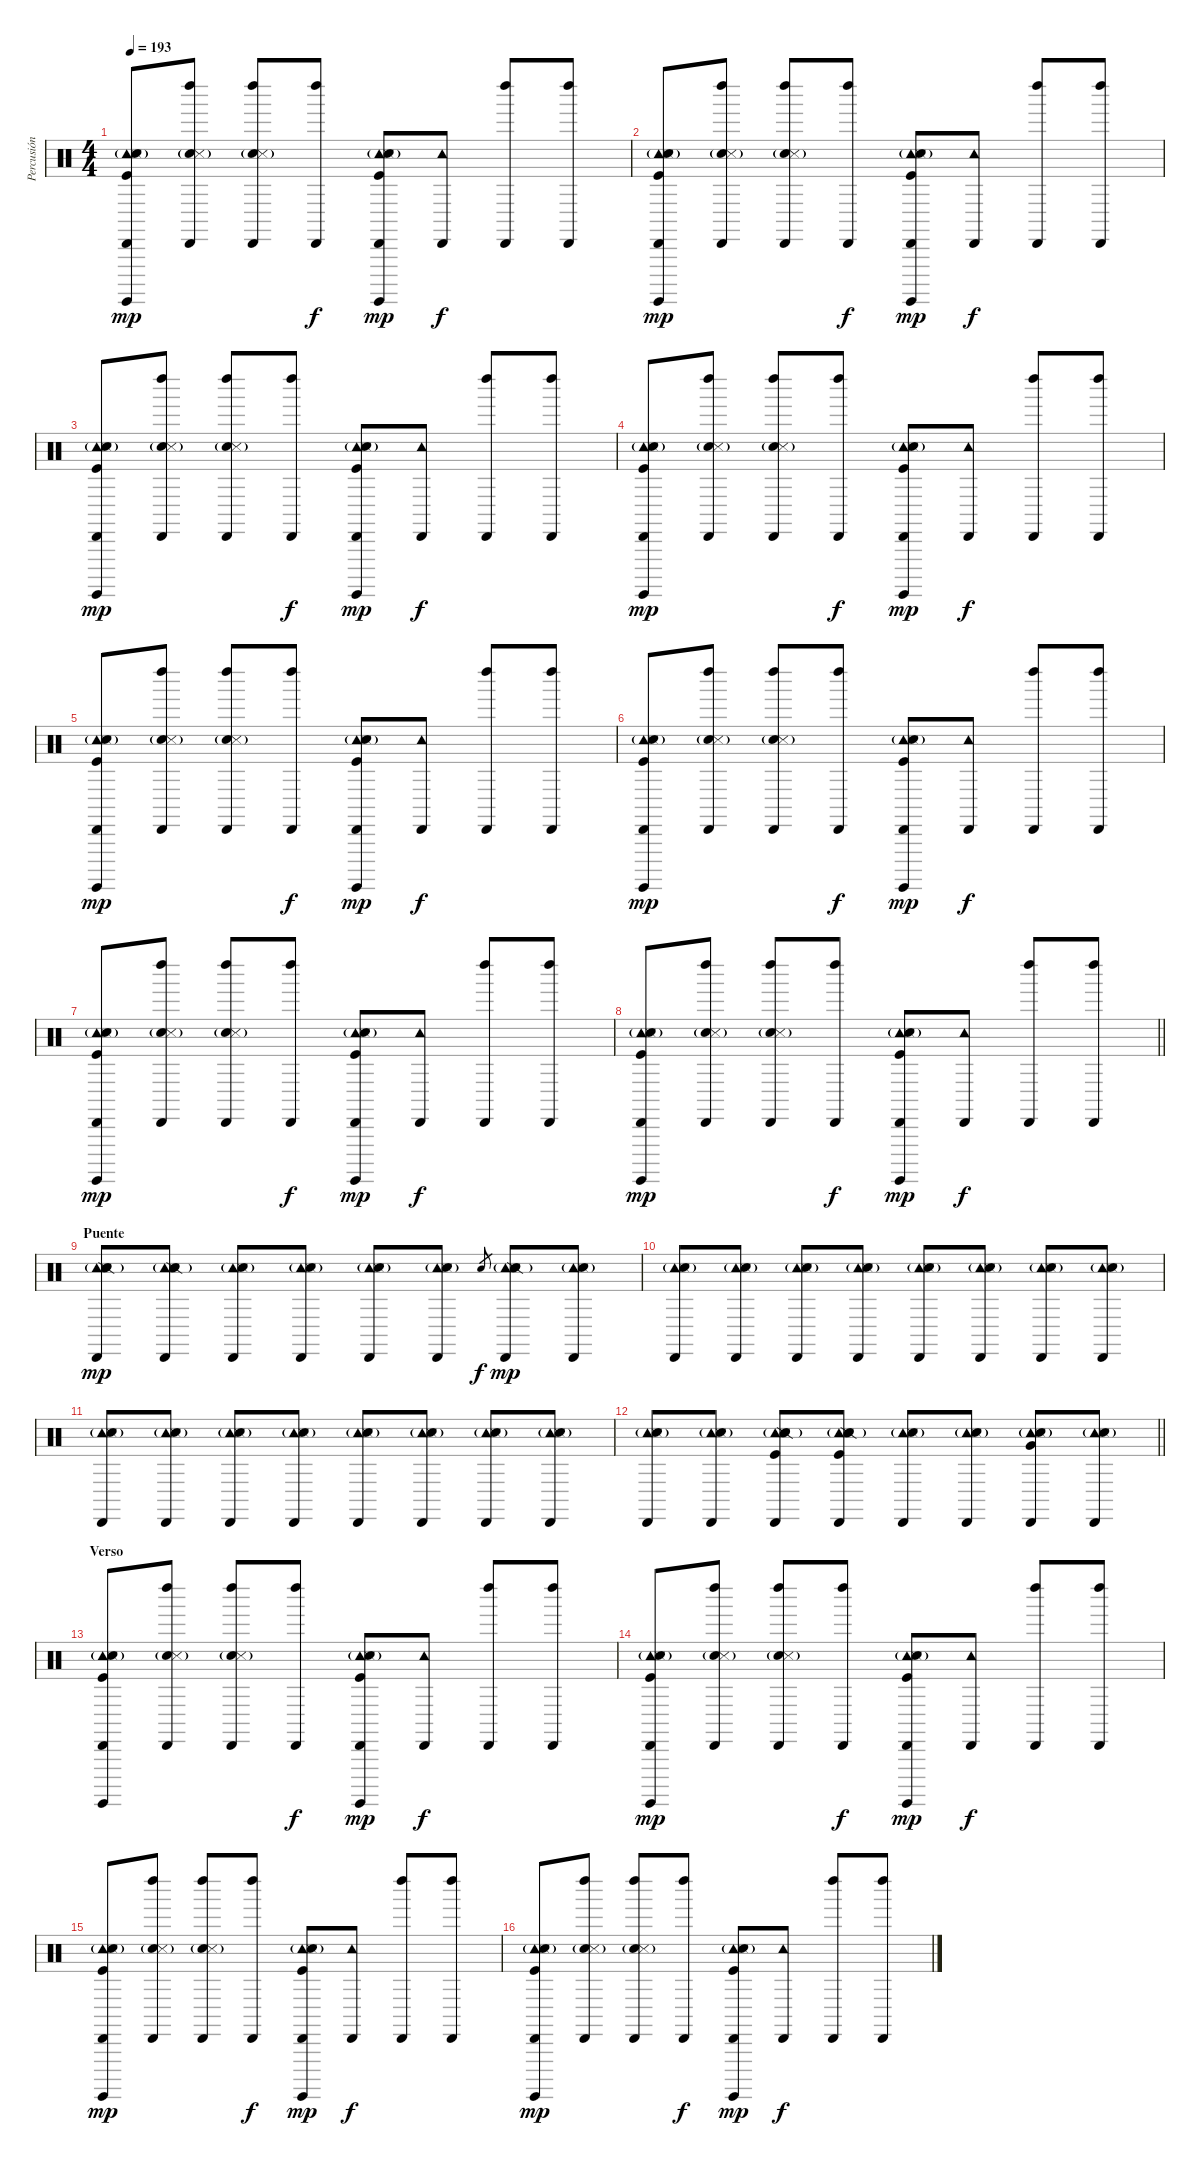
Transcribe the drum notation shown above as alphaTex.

\track ("Percusión" "Percusión") {instrument percussion}
\staff {score}
\articulation defaults
\ts (4 4)
\tempo 193
\clef neutral
\ks c
("Cabasa (hit)" "Tambourine (hit)" "Hand Clap (hit)"{g} "Metronome (hit)" "Surdo (hit)" "Kick (hit)").8{dy mp} ("Cabasa (hit)" "Left Maraca (hit)" "Hand Clap (hit)"{g} "Metronome (hit)").8 ("Cabasa (hit)" "Left Maraca (hit)" "Hand Clap (hit)"{g} "Metronome (hit)").8 ("Cabasa (hit)" "Left Maraca (hit)").8{dy f} ("Cabasa (hit)" "Tambourine (hit)" "Hand Clap (hit)"{g} "Metronome (hit)" "Surdo (hit)" "Kick (hit)").8{dy mp} ("Cabasa (hit)" "Tambourine (hit)").8{dy f} ("Cabasa (hit)" "Left Maraca (hit)").8 ("Cabasa (hit)" "Left Maraca (hit)").8 |
("Cabasa (hit)" "Tambourine (hit)" "Hand Clap (hit)"{g} "Metronome (hit)" "Surdo (hit)" "Kick (hit)").8{dy mp} ("Cabasa (hit)" "Left Maraca (hit)" "Hand Clap (hit)"{g} "Metronome (hit)").8 ("Cabasa (hit)" "Left Maraca (hit)" "Hand Clap (hit)"{g} "Metronome (hit)").8 ("Cabasa (hit)" "Left Maraca (hit)").8{dy f} ("Cabasa (hit)" "Tambourine (hit)" "Hand Clap (hit)"{g} "Metronome (hit)" "Surdo (hit)" "Kick (hit)").8{dy mp} ("Cabasa (hit)" "Tambourine (hit)").8{dy f} ("Cabasa (hit)" "Left Maraca (hit)").8 ("Cabasa (hit)" "Left Maraca (hit)").8 |
("Cabasa (hit)" "Tambourine (hit)" "Hand Clap (hit)"{g} "Metronome (hit)" "Surdo (hit)" "Kick (hit)").8{dy mp} ("Cabasa (hit)" "Left Maraca (hit)" "Hand Clap (hit)"{g} "Metronome (hit)").8 ("Cabasa (hit)" "Left Maraca (hit)" "Hand Clap (hit)"{g} "Metronome (hit)").8 ("Cabasa (hit)" "Left Maraca (hit)").8{dy f} ("Cabasa (hit)" "Tambourine (hit)" "Hand Clap (hit)"{g} "Metronome (hit)" "Surdo (hit)" "Kick (hit)").8{dy mp} ("Cabasa (hit)" "Tambourine (hit)").8{dy f} ("Cabasa (hit)" "Left Maraca (hit)").8 ("Cabasa (hit)" "Left Maraca (hit)").8 |
("Cabasa (hit)" "Tambourine (hit)" "Hand Clap (hit)"{g} "Metronome (hit)" "Surdo (hit)" "Kick (hit)").8{dy mp} ("Cabasa (hit)" "Left Maraca (hit)" "Hand Clap (hit)"{g} "Metronome (hit)").8 ("Cabasa (hit)" "Left Maraca (hit)" "Hand Clap (hit)"{g} "Metronome (hit)").8 ("Cabasa (hit)" "Left Maraca (hit)").8{dy f} ("Cabasa (hit)" "Tambourine (hit)" "Hand Clap (hit)"{g} "Metronome (hit)" "Surdo (hit)" "Kick (hit)").8{dy mp} ("Cabasa (hit)" "Tambourine (hit)").8{dy f} ("Cabasa (hit)" "Left Maraca (hit)").8 ("Cabasa (hit)" "Left Maraca (hit)").8 |
("Cabasa (hit)" "Tambourine (hit)" "Hand Clap (hit)"{g} "Metronome (hit)" "Surdo (hit)" "Kick (hit)").8{dy mp} ("Cabasa (hit)" "Left Maraca (hit)" "Hand Clap (hit)"{g} "Metronome (hit)").8 ("Cabasa (hit)" "Left Maraca (hit)" "Hand Clap (hit)"{g} "Metronome (hit)").8 ("Cabasa (hit)" "Left Maraca (hit)").8{dy f} ("Cabasa (hit)" "Tambourine (hit)" "Hand Clap (hit)"{g} "Metronome (hit)" "Surdo (hit)" "Kick (hit)").8{dy mp} ("Cabasa (hit)" "Tambourine (hit)").8{dy f} ("Cabasa (hit)" "Left Maraca (hit)").8 ("Cabasa (hit)" "Left Maraca (hit)").8 |
("Cabasa (hit)" "Tambourine (hit)" "Hand Clap (hit)"{g} "Metronome (hit)" "Surdo (hit)" "Kick (hit)").8{dy mp} ("Cabasa (hit)" "Left Maraca (hit)" "Hand Clap (hit)"{g} "Metronome (hit)").8 ("Cabasa (hit)" "Left Maraca (hit)" "Hand Clap (hit)"{g} "Metronome (hit)").8 ("Cabasa (hit)" "Left Maraca (hit)").8{dy f} ("Cabasa (hit)" "Tambourine (hit)" "Hand Clap (hit)"{g} "Metronome (hit)" "Surdo (hit)" "Kick (hit)").8{dy mp} ("Cabasa (hit)" "Tambourine (hit)").8{dy f} ("Cabasa (hit)" "Left Maraca (hit)").8 ("Cabasa (hit)" "Left Maraca (hit)").8 |
("Cabasa (hit)" "Tambourine (hit)" "Hand Clap (hit)"{g} "Metronome (hit)" "Surdo (hit)" "Kick (hit)").8{dy mp} ("Cabasa (hit)" "Left Maraca (hit)" "Hand Clap (hit)"{g} "Metronome (hit)").8 ("Cabasa (hit)" "Left Maraca (hit)" "Hand Clap (hit)"{g} "Metronome (hit)").8 ("Cabasa (hit)" "Left Maraca (hit)").8{dy f} ("Cabasa (hit)" "Tambourine (hit)" "Hand Clap (hit)"{g} "Metronome (hit)" "Surdo (hit)" "Kick (hit)").8{dy mp} ("Cabasa (hit)" "Tambourine (hit)").8{dy f} ("Cabasa (hit)" "Left Maraca (hit)").8 ("Cabasa (hit)" "Left Maraca (hit)").8 |
\barLineRight lightlight
("Cabasa (hit)" "Tambourine (hit)" "Hand Clap (hit)"{g} "Metronome (hit)" "Surdo (hit)" "Kick (hit)").8{dy mp} ("Cabasa (hit)" "Left Maraca (hit)" "Hand Clap (hit)"{g} "Metronome (hit)").8 ("Cabasa (hit)" "Left Maraca (hit)" "Hand Clap (hit)"{g} "Metronome (hit)").8 ("Cabasa (hit)" "Left Maraca (hit)").8{dy f} ("Cabasa (hit)" "Tambourine (hit)" "Hand Clap (hit)"{g} "Metronome (hit)" "Surdo (hit)" "Kick (hit)").8{dy mp} ("Cabasa (hit)" "Tambourine (hit)").8{dy f} ("Cabasa (hit)" "Left Maraca (hit)").8 ("Cabasa (hit)" "Left Maraca (hit)").8 |
\section ("" "Puente")
("Cabasa (hit)" "Tambourine (hit)" "Hand Clap (hit)"{g} "Metronome (hit)" "Snare (side stick) 2").8{dy mp} ("Cabasa (hit)" "Tambourine (hit)" "Hand Clap (hit)"{g} "Metronome (hit)" "Snare (side stick) 2").8 ("Cabasa (hit)" "Tambourine (hit)" "Hand Clap (hit)"{g} "Metronome (hit)").8 ("Cabasa (hit)" "Tambourine (hit)" "Hand Clap (hit)"{g} "Metronome (hit)").8 ("Cabasa (hit)" "Tambourine (hit)" "Hand Clap (hit)"{g} "Metronome (hit)").8 ("Cabasa (hit)" "Tambourine (hit)" "Hand Clap (hit)"{g} "Metronome (hit)").8 "Snare (hit)".8{gr dy f} ("Cabasa (hit)" "Tambourine (hit)" "Hand Clap (hit)"{g} "Metronome (hit)" "Snare (side stick) 2").8{dy mp} ("Cabasa (hit)" "Tambourine (hit)" "Hand Clap (hit)"{g} "Metronome (hit)").8 |
("Cabasa (hit)" "Tambourine (hit)" "Hand Clap (hit)"{g} "Metronome (hit)").8 ("Cabasa (hit)" "Tambourine (hit)" "Hand Clap (hit)"{g} "Metronome (hit)").8 ("Cabasa (hit)" "Tambourine (hit)" "Hand Clap (hit)"{g} "Metronome (hit)").8 ("Cabasa (hit)" "Tambourine (hit)" "Hand Clap (hit)"{g} "Metronome (hit)").8 ("Cabasa (hit)" "Tambourine (hit)" "Hand Clap (hit)"{g} "Metronome (hit)").8 ("Cabasa (hit)" "Tambourine (hit)" "Hand Clap (hit)"{g} "Metronome (hit)").8 ("Cabasa (hit)" "Tambourine (hit)" "Hand Clap (hit)"{g} "Metronome (hit)").8 ("Cabasa (hit)" "Tambourine (hit)" "Hand Clap (hit)"{g} "Metronome (hit)").8 |
("Cabasa (hit)" "Tambourine (hit)" "Hand Clap (hit)"{g} "Metronome (hit)").8 ("Cabasa (hit)" "Tambourine (hit)" "Hand Clap (hit)"{g} "Metronome (hit)").8 ("Cabasa (hit)" "Tambourine (hit)" "Hand Clap (hit)"{g} "Metronome (hit)").8 ("Cabasa (hit)" "Tambourine (hit)" "Hand Clap (hit)"{g} "Metronome (hit)").8 ("Cabasa (hit)" "Tambourine (hit)" "Hand Clap (hit)"{g} "Metronome (hit)").8 ("Cabasa (hit)" "Tambourine (hit)" "Hand Clap (hit)"{g} "Metronome (hit)").8 ("Cabasa (hit)" "Tambourine (hit)" "Hand Clap (hit)"{g} "Metronome (hit)").8 ("Cabasa (hit)" "Tambourine (hit)" "Hand Clap (hit)"{g} "Metronome (hit)").8 |
\barLineRight lightlight
("Cabasa (hit)" "Tambourine (hit)" "Hand Clap (hit)"{g} "Metronome (hit)").8 ("Cabasa (hit)" "Tambourine (hit)" "Hand Clap (hit)"{g} "Metronome (hit)").8 ("Cabasa (hit)" "Tambourine (hit)" "Hand Clap (hit)"{g} "Metronome (hit)" "Snare (side stick) 2" "Kick (hit)").8 ("Cabasa (hit)" "Tambourine (hit)" "Hand Clap (hit)"{g} "Metronome (hit)" "Snare (side stick) 2" "Kick (hit)").8 ("Cabasa (hit)" "Tambourine (hit)" "Hand Clap (hit)"{g} "Metronome (hit)").8 ("Cabasa (hit)" "Tambourine (hit)" "Hand Clap (hit)"{g} "Metronome (hit)").8 ("Cabasa (hit)" "Tambourine (hit)" "Hand Clap (hit)"{g} "Metronome (hit)" "Very Low Tom (hit)").8 ("Cabasa (hit)" "Tambourine (hit)" "Hand Clap (hit)"{g} "Metronome (hit)").8 |
\section ("" "Verso")
("Cabasa (hit)" "Tambourine (hit)" "Hand Clap (hit)"{g} "Metronome (hit)" "Surdo (hit)" "Kick (hit)").8 ("Cabasa (hit)" "Left Maraca (hit)" "Hand Clap (hit)"{g} "Metronome (hit)").8 ("Cabasa (hit)" "Left Maraca (hit)" "Hand Clap (hit)"{g} "Metronome (hit)").8 ("Cabasa (hit)" "Left Maraca (hit)").8{dy f} ("Cabasa (hit)" "Tambourine (hit)" "Hand Clap (hit)"{g} "Metronome (hit)" "Surdo (hit)" "Kick (hit)").8{dy mp} ("Cabasa (hit)" "Tambourine (hit)").8{dy f} ("Cabasa (hit)" "Left Maraca (hit)").8 ("Cabasa (hit)" "Left Maraca (hit)").8 |
("Cabasa (hit)" "Tambourine (hit)" "Hand Clap (hit)"{g} "Metronome (hit)" "Surdo (hit)" "Kick (hit)").8{dy mp} ("Cabasa (hit)" "Left Maraca (hit)" "Hand Clap (hit)"{g} "Metronome (hit)").8 ("Cabasa (hit)" "Left Maraca (hit)" "Hand Clap (hit)"{g} "Metronome (hit)").8 ("Cabasa (hit)" "Left Maraca (hit)").8{dy f} ("Cabasa (hit)" "Tambourine (hit)" "Hand Clap (hit)"{g} "Metronome (hit)" "Surdo (hit)" "Kick (hit)").8{dy mp} ("Cabasa (hit)" "Tambourine (hit)").8{dy f} ("Cabasa (hit)" "Left Maraca (hit)").8 ("Cabasa (hit)" "Left Maraca (hit)").8 |
("Cabasa (hit)" "Tambourine (hit)" "Hand Clap (hit)"{g} "Metronome (hit)" "Surdo (hit)" "Kick (hit)").8{dy mp} ("Cabasa (hit)" "Left Maraca (hit)" "Hand Clap (hit)"{g} "Metronome (hit)").8 ("Cabasa (hit)" "Left Maraca (hit)" "Hand Clap (hit)"{g} "Metronome (hit)").8 ("Cabasa (hit)" "Left Maraca (hit)").8{dy f} ("Cabasa (hit)" "Tambourine (hit)" "Hand Clap (hit)"{g} "Metronome (hit)" "Surdo (hit)" "Kick (hit)").8{dy mp} ("Cabasa (hit)" "Tambourine (hit)").8{dy f} ("Cabasa (hit)" "Left Maraca (hit)").8 ("Cabasa (hit)" "Left Maraca (hit)").8 |
("Cabasa (hit)" "Tambourine (hit)" "Hand Clap (hit)"{g} "Metronome (hit)" "Surdo (hit)" "Kick (hit)").8{dy mp} ("Cabasa (hit)" "Left Maraca (hit)" "Hand Clap (hit)"{g} "Metronome (hit)").8 ("Cabasa (hit)" "Left Maraca (hit)" "Hand Clap (hit)"{g} "Metronome (hit)").8 ("Cabasa (hit)" "Left Maraca (hit)").8{dy f} ("Cabasa (hit)" "Tambourine (hit)" "Hand Clap (hit)"{g} "Metronome (hit)" "Surdo (hit)" "Kick (hit)").8{dy mp} ("Cabasa (hit)" "Tambourine (hit)").8{dy f} ("Cabasa (hit)" "Left Maraca (hit)").8 ("Cabasa (hit)" "Left Maraca (hit)").8
